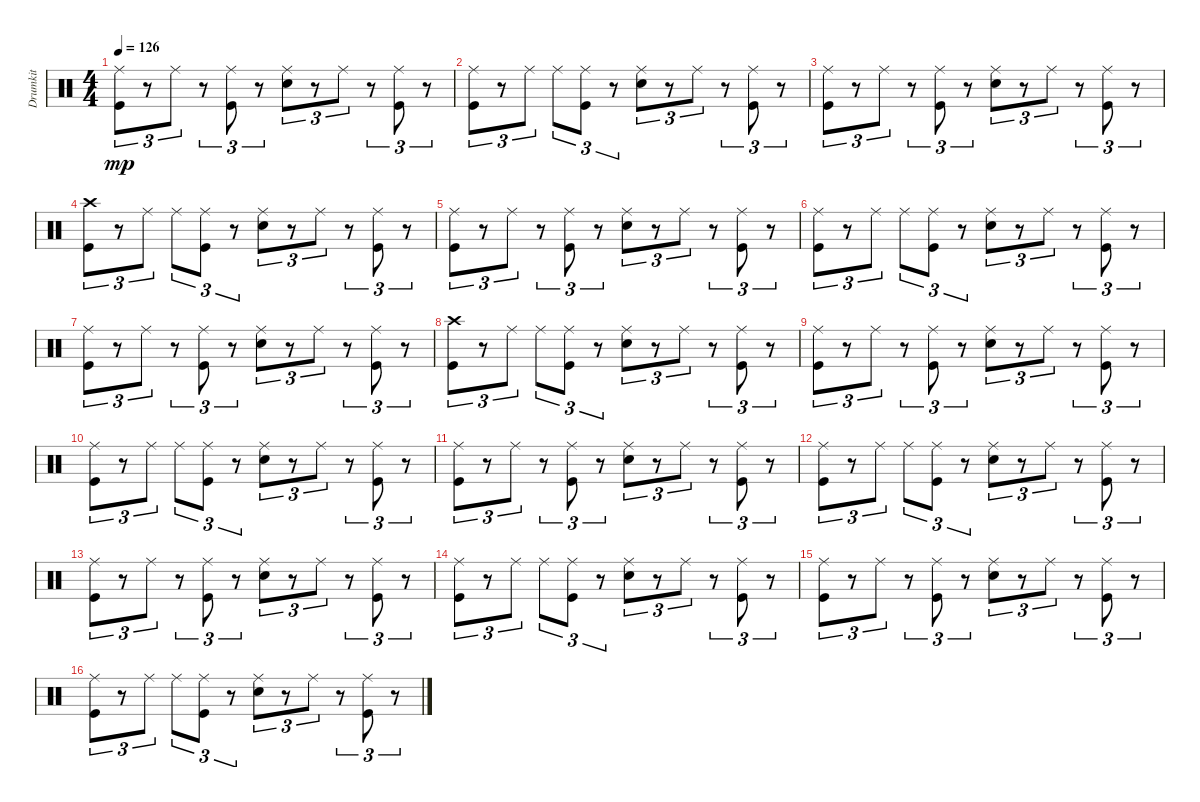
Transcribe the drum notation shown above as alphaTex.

\track ("Drumkit" "Drumkit") {instrument percussion}
\staff {score}
\articulation defaults
\ts (4 4)
\tempo 126
\clef neutral
\ks c
("Ride (middle)" "Kick (hit)").8{tu (3 2) dy mp} r.8{tu (3 2)} "Ride (middle)".8{tu (3 2)} r.8{tu (3 2)} ("Ride (middle)" "Kick (hit)").8{tu (3 2)} r.8{tu (3 2)} ("Ride (middle)" "Snare (hit) 2").8{tu (3 2)} r.8{tu (3 2)} "Ride (middle)".8{tu (3 2)} r.8{tu (3 2)} ("Ride (middle)" "Kick (hit)").8{tu (3 2)} r.8{tu (3 2)} |
("Ride (middle)" "Kick (hit)").8{tu (3 2)} r.8{tu (3 2)} "Ride (middle)".8{tu (3 2)} "Ride (middle)".8{tu (3 2)} ("Kick (hit)" "Ride (middle)").8{tu (3 2)} r.8{tu (3 2)} ("Snare (hit) 2" "Ride (middle)").8{tu (3 2)} r.8{tu (3 2)} "Ride (middle)".8{tu (3 2)} r.8{tu (3 2)} ("Kick (hit)" "Ride (middle)").8{tu (3 2)} r.8{tu (3 2)} |
("Ride (middle)" "Kick (hit)").8{tu (3 2)} r.8{tu (3 2)} "Ride (middle)".8{tu (3 2)} r.8{tu (3 2)} ("Ride (middle)" "Kick (hit)").8{tu (3 2)} r.8{tu (3 2)} ("Ride (middle)" "Snare (hit) 2").8{tu (3 2)} r.8{tu (3 2)} "Ride (middle)".8{tu (3 2)} r.8{tu (3 2)} ("Ride (middle)" "Kick (hit)").8{tu (3 2)} r.8{tu (3 2)} |
("Crash high (hit)" "Kick (hit)").8{tu (3 2)} r.8{tu (3 2)} "Ride (middle)".8{tu (3 2)} "Ride (middle)".8{tu (3 2)} ("Kick (hit)" "Ride (middle)").8{tu (3 2)} r.8{tu (3 2)} ("Snare (hit) 2" "Ride (middle)").8{tu (3 2)} r.8{tu (3 2)} "Ride (middle)".8{tu (3 2)} r.8{tu (3 2)} ("Kick (hit)" "Ride (middle)").8{tu (3 2)} r.8{tu (3 2)} |
("Ride (middle)" "Kick (hit)").8{tu (3 2)} r.8{tu (3 2)} "Ride (middle)".8{tu (3 2)} r.8{tu (3 2)} ("Ride (middle)" "Kick (hit)").8{tu (3 2)} r.8{tu (3 2)} ("Ride (middle)" "Snare (hit) 2").8{tu (3 2)} r.8{tu (3 2)} "Ride (middle)".8{tu (3 2)} r.8{tu (3 2)} ("Ride (middle)" "Kick (hit)").8{tu (3 2)} r.8{tu (3 2)} |
("Ride (middle)" "Kick (hit)").8{tu (3 2)} r.8{tu (3 2)} "Ride (middle)".8{tu (3 2)} "Ride (middle)".8{tu (3 2)} ("Kick (hit)" "Ride (middle)").8{tu (3 2)} r.8{tu (3 2)} ("Snare (hit) 2" "Ride (middle)").8{tu (3 2)} r.8{tu (3 2)} "Ride (middle)".8{tu (3 2)} r.8{tu (3 2)} ("Kick (hit)" "Ride (middle)").8{tu (3 2)} r.8{tu (3 2)} |
("Ride (middle)" "Kick (hit)").8{tu (3 2)} r.8{tu (3 2)} "Ride (middle)".8{tu (3 2)} r.8{tu (3 2)} ("Ride (middle)" "Kick (hit)").8{tu (3 2)} r.8{tu (3 2)} ("Ride (middle)" "Snare (hit) 2").8{tu (3 2)} r.8{tu (3 2)} "Ride (middle)".8{tu (3 2)} r.8{tu (3 2)} ("Ride (middle)" "Kick (hit)").8{tu (3 2)} r.8{tu (3 2)} |
("Crash high (hit)" "Kick (hit)").8{tu (3 2)} r.8{tu (3 2)} "Ride (middle)".8{tu (3 2)} "Ride (middle)".8{tu (3 2)} ("Kick (hit)" "Ride (middle)").8{tu (3 2)} r.8{tu (3 2)} ("Snare (hit) 2" "Ride (middle)").8{tu (3 2)} r.8{tu (3 2)} "Ride (middle)".8{tu (3 2)} r.8{tu (3 2)} ("Kick (hit)" "Ride (middle)").8{tu (3 2)} r.8{tu (3 2)} |
("Ride (middle)" "Kick (hit)").8{tu (3 2)} r.8{tu (3 2)} "Ride (middle)".8{tu (3 2)} r.8{tu (3 2)} ("Ride (middle)" "Kick (hit)").8{tu (3 2)} r.8{tu (3 2)} ("Ride (middle)" "Snare (hit) 2").8{tu (3 2)} r.8{tu (3 2)} "Ride (middle)".8{tu (3 2)} r.8{tu (3 2)} ("Ride (middle)" "Kick (hit)").8{tu (3 2)} r.8{tu (3 2)} |
("Ride (middle)" "Kick (hit)").8{tu (3 2)} r.8{tu (3 2)} "Ride (middle)".8{tu (3 2)} "Ride (middle)".8{tu (3 2)} ("Kick (hit)" "Ride (middle)").8{tu (3 2)} r.8{tu (3 2)} ("Snare (hit) 2" "Ride (middle)").8{tu (3 2)} r.8{tu (3 2)} "Ride (middle)".8{tu (3 2)} r.8{tu (3 2)} ("Kick (hit)" "Ride (middle)").8{tu (3 2)} r.8{tu (3 2)} |
("Ride (middle)" "Kick (hit)").8{tu (3 2)} r.8{tu (3 2)} "Ride (middle)".8{tu (3 2)} r.8{tu (3 2)} ("Ride (middle)" "Kick (hit)").8{tu (3 2)} r.8{tu (3 2)} ("Ride (middle)" "Snare (hit) 2").8{tu (3 2)} r.8{tu (3 2)} "Ride (middle)".8{tu (3 2)} r.8{tu (3 2)} ("Ride (middle)" "Kick (hit)").8{tu (3 2)} r.8{tu (3 2)} |
("Ride (middle)" "Kick (hit)").8{tu (3 2)} r.8{tu (3 2)} "Ride (middle)".8{tu (3 2)} "Ride (middle)".8{tu (3 2)} ("Kick (hit)" "Ride (middle)").8{tu (3 2)} r.8{tu (3 2)} ("Snare (hit) 2" "Ride (middle)").8{tu (3 2)} r.8{tu (3 2)} "Ride (middle)".8{tu (3 2)} r.8{tu (3 2)} ("Kick (hit)" "Ride (middle)").8{tu (3 2)} r.8{tu (3 2)} |
("Ride (middle)" "Kick (hit)").8{tu (3 2)} r.8{tu (3 2)} "Ride (middle)".8{tu (3 2)} r.8{tu (3 2)} ("Ride (middle)" "Kick (hit)").8{tu (3 2)} r.8{tu (3 2)} ("Ride (middle)" "Snare (hit) 2").8{tu (3 2)} r.8{tu (3 2)} "Ride (middle)".8{tu (3 2)} r.8{tu (3 2)} ("Ride (middle)" "Kick (hit)").8{tu (3 2)} r.8{tu (3 2)} |
("Ride (middle)" "Kick (hit)").8{tu (3 2)} r.8{tu (3 2)} "Ride (middle)".8{tu (3 2)} "Ride (middle)".8{tu (3 2)} ("Kick (hit)" "Ride (middle)").8{tu (3 2)} r.8{tu (3 2)} ("Snare (hit) 2" "Ride (middle)").8{tu (3 2)} r.8{tu (3 2)} "Ride (middle)".8{tu (3 2)} r.8{tu (3 2)} ("Kick (hit)" "Ride (middle)").8{tu (3 2)} r.8{tu (3 2)} |
("Ride (middle)" "Kick (hit)").8{tu (3 2)} r.8{tu (3 2)} "Ride (middle)".8{tu (3 2)} r.8{tu (3 2)} ("Ride (middle)" "Kick (hit)").8{tu (3 2)} r.8{tu (3 2)} ("Ride (middle)" "Snare (hit) 2").8{tu (3 2)} r.8{tu (3 2)} "Ride (middle)".8{tu (3 2)} r.8{tu (3 2)} ("Ride (middle)" "Kick (hit)").8{tu (3 2)} r.8{tu (3 2)} |
("Ride (middle)" "Kick (hit)").8{tu (3 2)} r.8{tu (3 2)} "Ride (middle)".8{tu (3 2)} "Ride (middle)".8{tu (3 2)} ("Kick (hit)" "Ride (middle)").8{tu (3 2)} r.8{tu (3 2)} ("Snare (hit) 2" "Ride (middle)").8{tu (3 2)} r.8{tu (3 2)} "Ride (middle)".8{tu (3 2)} r.8{tu (3 2)} ("Kick (hit)" "Ride (middle)").8{tu (3 2)} r.8{tu (3 2)}
